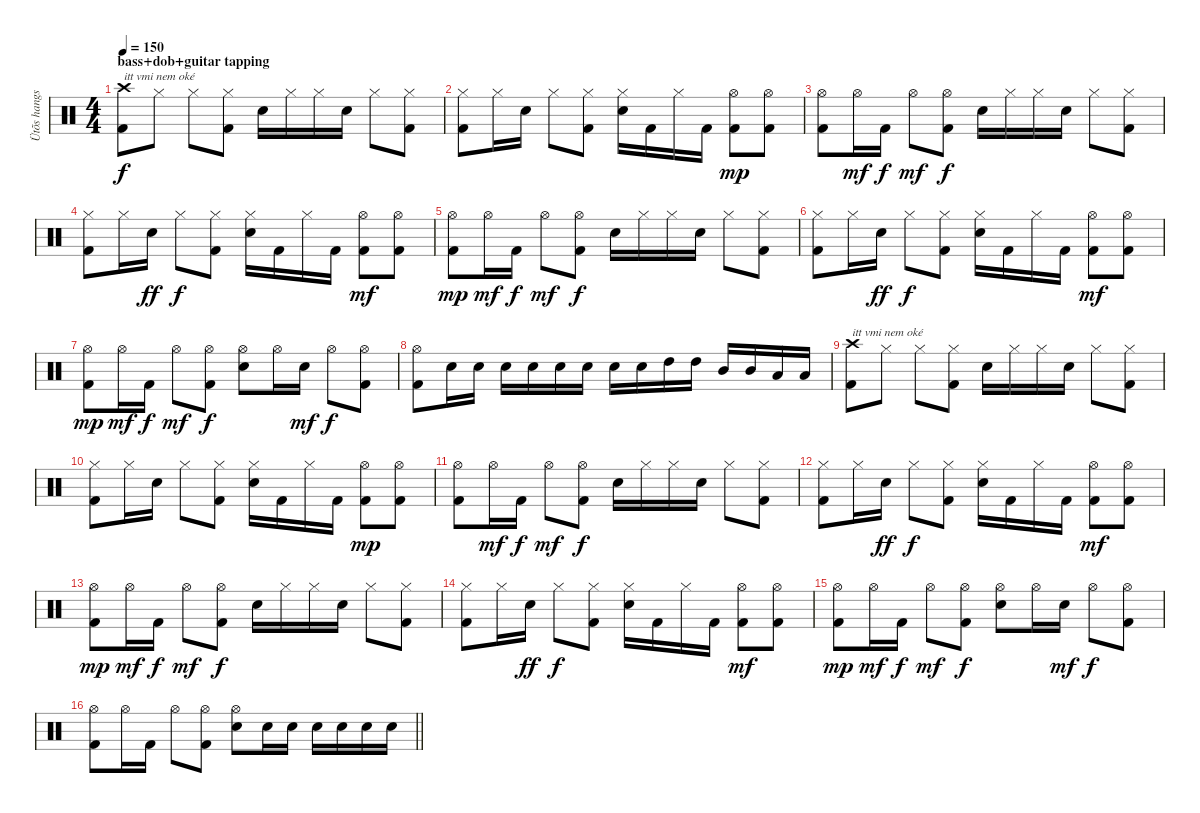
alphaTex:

\track ("Ütõs hangszer" "Ütõs hangs") {instrument percussion}
\staff {score}
\articulation defaults
\ts (4 4)
\section ("" "bass+dob+guitar tapping")
\tempo 150
\clef neutral
\ks c
("Crash high (hit)" "Kick (hit) 2").8{txt "itt vmi nem oké" dy f} "Hi-Hat (closed)".8 "Hi-Hat (closed)".8 ("Hi-Hat (closed)" "Kick (hit) 2").8 "Electric Snare (hit)".16 "Hi-Hat (closed)".16 "Hi-Hat (closed)".16 "Electric Snare (hit)".16 "Hi-Hat (closed)".8 ("Hi-Hat (closed)" "Kick (hit) 2").8 |
("Hi-Hat (closed)" "Kick (hit) 2").8 "Hi-Hat (closed)".16 "Electric Snare (hit)".16 "Hi-Hat (closed)".8 ("Hi-Hat (closed)" "Kick (hit) 2").8 ("Hi-Hat (closed)" "Electric Snare (hit)").16 "Kick (hit) 2".16 "Hi-Hat (closed)".16 "Kick (hit) 2".16 ("Hi-Hat (open)" "Kick (hit) 2").8{dy mp} ("Hi-Hat (open)" "Kick (hit) 2").8 |
("Hi-Hat (open)" "Kick (hit) 2").8 "Hi-Hat (open)".16{dy mf} "Kick (hit) 2".16{dy f} "Hi-Hat (open)".8{dy mf} ("Hi-Hat (open)" "Kick (hit) 2").8{dy f} "Electric Snare (hit)".16 "Hi-Hat (closed)".16 "Hi-Hat (closed)".16 "Electric Snare (hit)".16 "Hi-Hat (closed)".8 ("Hi-Hat (closed)" "Kick (hit) 2").8 |
("Hi-Hat (closed)" "Kick (hit) 2").8 "Hi-Hat (closed)".16 "Electric Snare (hit)".16{dy ff} "Hi-Hat (closed)".8{dy f} ("Hi-Hat (closed)" "Kick (hit) 2").8 ("Hi-Hat (closed)" "Electric Snare (hit)").16 "Kick (hit) 2".16 "Hi-Hat (closed)".16 "Kick (hit) 2".16 ("Hi-Hat (open)" "Kick (hit) 2").8{dy mf} ("Hi-Hat (open)" "Kick (hit) 2").8 |
("Hi-Hat (open)" "Kick (hit) 2").8{dy mp} "Hi-Hat (open)".16{dy mf} "Kick (hit) 2".16{dy f} "Hi-Hat (open)".8{dy mf} ("Hi-Hat (open)" "Kick (hit) 2").8{dy f} "Electric Snare (hit)".16 "Hi-Hat (closed)".16 "Hi-Hat (closed)".16 "Electric Snare (hit)".16 "Hi-Hat (closed)".8 ("Hi-Hat (closed)" "Kick (hit) 2").8 |
("Hi-Hat (closed)" "Kick (hit) 2").8 "Hi-Hat (closed)".16 "Electric Snare (hit)".16{dy ff} "Hi-Hat (closed)".8{dy f} ("Hi-Hat (closed)" "Kick (hit) 2").8 ("Hi-Hat (closed)" "Electric Snare (hit)").16 "Kick (hit) 2".16 "Hi-Hat (closed)".16 "Kick (hit) 2".16 ("Hi-Hat (open)" "Kick (hit) 2").8{dy mf} ("Hi-Hat (open)" "Kick (hit) 2").8 |
("Hi-Hat (open)" "Kick (hit) 2").8{dy mp} "Hi-Hat (open)".16{dy mf} "Kick (hit) 2".16{dy f} "Hi-Hat (open)".8{dy mf} ("Hi-Hat (open)" "Kick (hit) 2").8{dy f} ("Hi-Hat (open)" "Electric Snare (hit)").8 "Hi-Hat (open)".16 "Electric Snare (hit)".16{dy mf} "Hi-Hat (open)".8{dy f} ("Hi-Hat (open)" "Kick (hit) 2").8 |
("Hi-Hat (open)" "Kick (hit) 2").8 "Electric Snare (hit)".16 "Electric Snare (hit)".16 "Electric Snare (hit)".16 "Electric Snare (hit)".16 "Electric Snare (hit)".16 "Electric Snare (hit)".16 "Electric Snare (hit)".16 "Electric Snare (hit)".16 "High Tom (hit)".16 "High Tom (hit)".16 "Mid Tom (hit)".16 "Mid Tom (hit)".16 "Low Tom (hit)".16 "Low Tom (hit)".16 |
("Crash high (hit)" "Kick (hit) 2").8{txt "itt vmi nem oké"} "Hi-Hat (closed)".8 "Hi-Hat (closed)".8 ("Hi-Hat (closed)" "Kick (hit) 2").8 "Electric Snare (hit)".16 "Hi-Hat (closed)".16 "Hi-Hat (closed)".16 "Electric Snare (hit)".16 "Hi-Hat (closed)".8 ("Hi-Hat (closed)" "Kick (hit) 2").8 |
("Hi-Hat (closed)" "Kick (hit) 2").8 "Hi-Hat (closed)".16 "Electric Snare (hit)".16 "Hi-Hat (closed)".8 ("Hi-Hat (closed)" "Kick (hit) 2").8 ("Hi-Hat (closed)" "Electric Snare (hit)").16 "Kick (hit) 2".16 "Hi-Hat (closed)".16 "Kick (hit) 2".16 ("Hi-Hat (open)" "Kick (hit) 2").8{dy mp} ("Hi-Hat (open)" "Kick (hit) 2").8 |
("Hi-Hat (open)" "Kick (hit) 2").8 "Hi-Hat (open)".16{dy mf} "Kick (hit) 2".16{dy f} "Hi-Hat (open)".8{dy mf} ("Hi-Hat (open)" "Kick (hit) 2").8{dy f} "Electric Snare (hit)".16 "Hi-Hat (closed)".16 "Hi-Hat (closed)".16 "Electric Snare (hit)".16 "Hi-Hat (closed)".8 ("Hi-Hat (closed)" "Kick (hit) 2").8 |
("Hi-Hat (closed)" "Kick (hit) 2").8 "Hi-Hat (closed)".16 "Electric Snare (hit)".16{dy ff} "Hi-Hat (closed)".8{dy f} ("Hi-Hat (closed)" "Kick (hit) 2").8 ("Hi-Hat (closed)" "Electric Snare (hit)").16 "Kick (hit) 2".16 "Hi-Hat (closed)".16 "Kick (hit) 2".16 ("Hi-Hat (open)" "Kick (hit) 2").8{dy mf} ("Hi-Hat (open)" "Kick (hit) 2").8 |
("Hi-Hat (open)" "Kick (hit) 2").8{dy mp} "Hi-Hat (open)".16{dy mf} "Kick (hit) 2".16{dy f} "Hi-Hat (open)".8{dy mf} ("Hi-Hat (open)" "Kick (hit) 2").8{dy f} "Electric Snare (hit)".16 "Hi-Hat (closed)".16 "Hi-Hat (closed)".16 "Electric Snare (hit)".16 "Hi-Hat (closed)".8 ("Hi-Hat (closed)" "Kick (hit) 2").8 |
("Hi-Hat (closed)" "Kick (hit) 2").8 "Hi-Hat (closed)".16 "Electric Snare (hit)".16{dy ff} "Hi-Hat (closed)".8{dy f} ("Hi-Hat (closed)" "Kick (hit) 2").8 ("Hi-Hat (closed)" "Electric Snare (hit)").16 "Kick (hit) 2".16 "Hi-Hat (closed)".16 "Kick (hit) 2".16 ("Hi-Hat (open)" "Kick (hit) 2").8{dy mf} ("Hi-Hat (open)" "Kick (hit) 2").8 |
("Hi-Hat (open)" "Kick (hit) 2").8{dy mp} "Hi-Hat (open)".16{dy mf} "Kick (hit) 2".16{dy f} "Hi-Hat (open)".8{dy mf} ("Hi-Hat (open)" "Kick (hit) 2").8{dy f} ("Hi-Hat (open)" "Electric Snare (hit)").8 "Hi-Hat (open)".16 "Electric Snare (hit)".16{dy mf} "Hi-Hat (open)".8{dy f} ("Hi-Hat (open)" "Kick (hit) 2").8 |
\barLineRight lightlight
("Hi-Hat (open)" "Kick (hit) 2").8 "Hi-Hat (open)".16 "Kick (hit) 2".16 "Hi-Hat (open)".8 ("Hi-Hat (open)" "Kick (hit) 2").8 ("Hi-Hat (open)" "Electric Snare (hit)").8 "Electric Snare (hit)".16 "Electric Snare (hit)".16 "Electric Snare (hit)".16 "Electric Snare (hit)".16 "Electric Snare (hit)".16 "Electric Snare (hit)".16
